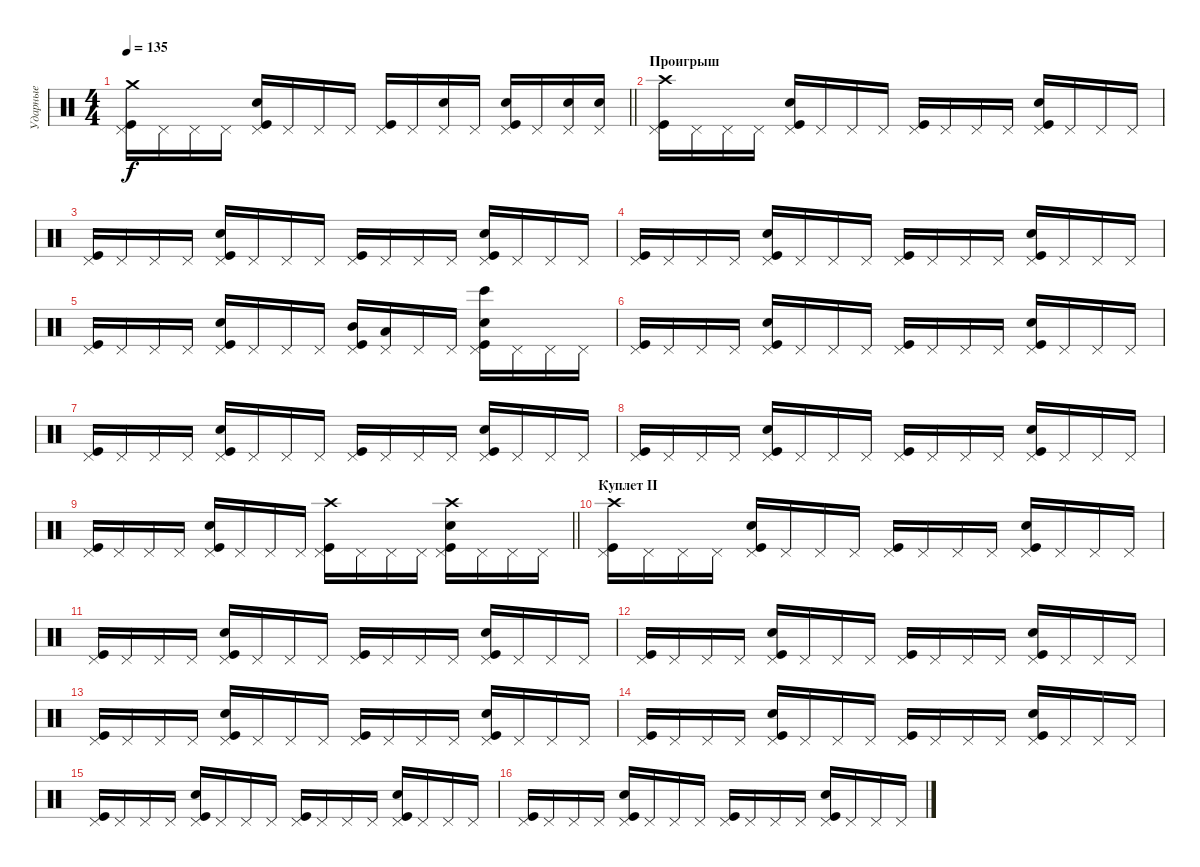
\track ("Ударные" "Ударные") {instrument percussion}
\staff {score}
\articulation defaults
\ts (4 4)
\tempo 135
\clef neutral
\barLineRight lightlight
\ks c
("Kick (hit)" "Pedal Hi-Hat (hit)" "Crash medium (hit)").16{dy f} "Pedal Hi-Hat (hit)".16 "Pedal Hi-Hat (hit)".16 "Pedal Hi-Hat (hit)".16 ("Kick (hit)" "Pedal Hi-Hat (hit)" "Snare (hit) 2").16 "Pedal Hi-Hat (hit)".16 "Pedal Hi-Hat (hit)".16 "Pedal Hi-Hat (hit)".16 ("Kick (hit)" "Pedal Hi-Hat (hit)").16 "Pedal Hi-Hat (hit)".16 ("Pedal Hi-Hat (hit)" "Snare (hit) 2").16 "Pedal Hi-Hat (hit)".16 ("Kick (hit)" "Pedal Hi-Hat (hit)" "Snare (hit) 2").16 "Pedal Hi-Hat (hit)".16 ("Pedal Hi-Hat (hit)" "Snare (hit) 2").16 ("Pedal Hi-Hat (hit)" "Snare (hit) 2").16 |
\section ("" "Проигрыш")
("Kick (hit)" "Pedal Hi-Hat (hit)" "Crash high (hit)").16 "Pedal Hi-Hat (hit)".16 "Pedal Hi-Hat (hit)".16 "Pedal Hi-Hat (hit)".16 ("Kick (hit)" "Pedal Hi-Hat (hit)" "Snare (hit) 2").16 "Pedal Hi-Hat (hit)".16 "Pedal Hi-Hat (hit)".16 "Pedal Hi-Hat (hit)".16 ("Kick (hit)" "Pedal Hi-Hat (hit)").16 "Pedal Hi-Hat (hit)".16 "Pedal Hi-Hat (hit)".16 "Pedal Hi-Hat (hit)".16 ("Kick (hit)" "Pedal Hi-Hat (hit)" "Snare (hit) 2").16 "Pedal Hi-Hat (hit)".16 "Pedal Hi-Hat (hit)".16 "Pedal Hi-Hat (hit)".16 |
("Kick (hit)" "Pedal Hi-Hat (hit)").16 "Pedal Hi-Hat (hit)".16 "Pedal Hi-Hat (hit)".16 "Pedal Hi-Hat (hit)".16 ("Kick (hit)" "Pedal Hi-Hat (hit)" "Snare (hit) 2").16 "Pedal Hi-Hat (hit)".16 "Pedal Hi-Hat (hit)".16 "Pedal Hi-Hat (hit)".16 ("Kick (hit)" "Pedal Hi-Hat (hit)").16 "Pedal Hi-Hat (hit)".16 "Pedal Hi-Hat (hit)".16 "Pedal Hi-Hat (hit)".16 ("Kick (hit)" "Pedal Hi-Hat (hit)" "Snare (hit) 2").16 "Pedal Hi-Hat (hit)".16 "Pedal Hi-Hat (hit)".16 "Pedal Hi-Hat (hit)".16 |
("Kick (hit)" "Pedal Hi-Hat (hit)").16 "Pedal Hi-Hat (hit)".16 "Pedal Hi-Hat (hit)".16 "Pedal Hi-Hat (hit)".16 ("Kick (hit)" "Pedal Hi-Hat (hit)" "Snare (hit) 2").16 "Pedal Hi-Hat (hit)".16 "Pedal Hi-Hat (hit)".16 "Pedal Hi-Hat (hit)".16 ("Kick (hit)" "Pedal Hi-Hat (hit)").16 "Pedal Hi-Hat (hit)".16 "Pedal Hi-Hat (hit)".16 "Pedal Hi-Hat (hit)".16 ("Kick (hit)" "Pedal Hi-Hat (hit)" "Snare (hit) 2").16 "Pedal Hi-Hat (hit)".16 "Pedal Hi-Hat (hit)".16 "Pedal Hi-Hat (hit)".16 |
("Kick (hit)" "Pedal Hi-Hat (hit)").16 "Pedal Hi-Hat (hit)".16 "Pedal Hi-Hat (hit)".16 "Pedal Hi-Hat (hit)".16 ("Kick (hit)" "Pedal Hi-Hat (hit)" "Snare (hit) 2").16 "Pedal Hi-Hat (hit)".16 "Pedal Hi-Hat (hit)".16 "Pedal Hi-Hat (hit)".16 ("Kick (hit)" "Pedal Hi-Hat (hit)" "Mid Tom (hit)").16 ("Pedal Hi-Hat (hit)" "Low Tom (hit)").16 "Pedal Hi-Hat (hit)".16 "Pedal Hi-Hat (hit)".16 ("Kick (hit)" "Pedal Hi-Hat (hit)" "Snare (hit) 2" "Bongo High (hit)").16 "Pedal Hi-Hat (hit)".16 "Pedal Hi-Hat (hit)".16 "Pedal Hi-Hat (hit)".16 |
("Kick (hit)" "Pedal Hi-Hat (hit)").16 "Pedal Hi-Hat (hit)".16 "Pedal Hi-Hat (hit)".16 "Pedal Hi-Hat (hit)".16 ("Kick (hit)" "Pedal Hi-Hat (hit)" "Snare (hit) 2").16 "Pedal Hi-Hat (hit)".16 "Pedal Hi-Hat (hit)".16 "Pedal Hi-Hat (hit)".16 ("Kick (hit)" "Pedal Hi-Hat (hit)").16 "Pedal Hi-Hat (hit)".16 "Pedal Hi-Hat (hit)".16 "Pedal Hi-Hat (hit)".16 ("Kick (hit)" "Pedal Hi-Hat (hit)" "Snare (hit) 2").16 "Pedal Hi-Hat (hit)".16 "Pedal Hi-Hat (hit)".16 "Pedal Hi-Hat (hit)".16 |
("Kick (hit)" "Pedal Hi-Hat (hit)").16 "Pedal Hi-Hat (hit)".16 "Pedal Hi-Hat (hit)".16 "Pedal Hi-Hat (hit)".16 ("Kick (hit)" "Pedal Hi-Hat (hit)" "Snare (hit) 2").16 "Pedal Hi-Hat (hit)".16 "Pedal Hi-Hat (hit)".16 "Pedal Hi-Hat (hit)".16 ("Kick (hit)" "Pedal Hi-Hat (hit)").16 "Pedal Hi-Hat (hit)".16 "Pedal Hi-Hat (hit)".16 "Pedal Hi-Hat (hit)".16 ("Kick (hit)" "Pedal Hi-Hat (hit)" "Snare (hit) 2").16 "Pedal Hi-Hat (hit)".16 "Pedal Hi-Hat (hit)".16 "Pedal Hi-Hat (hit)".16 |
("Kick (hit)" "Pedal Hi-Hat (hit)").16 "Pedal Hi-Hat (hit)".16 "Pedal Hi-Hat (hit)".16 "Pedal Hi-Hat (hit)".16 ("Kick (hit)" "Pedal Hi-Hat (hit)" "Snare (hit) 2").16 "Pedal Hi-Hat (hit)".16 "Pedal Hi-Hat (hit)".16 "Pedal Hi-Hat (hit)".16 ("Kick (hit)" "Pedal Hi-Hat (hit)").16 "Pedal Hi-Hat (hit)".16 "Pedal Hi-Hat (hit)".16 "Pedal Hi-Hat (hit)".16 ("Kick (hit)" "Pedal Hi-Hat (hit)" "Snare (hit) 2").16 "Pedal Hi-Hat (hit)".16 "Pedal Hi-Hat (hit)".16 "Pedal Hi-Hat (hit)".16 |
\barLineRight lightlight
("Kick (hit)" "Pedal Hi-Hat (hit)").16 "Pedal Hi-Hat (hit)".16 "Pedal Hi-Hat (hit)".16 "Pedal Hi-Hat (hit)".16 ("Kick (hit)" "Pedal Hi-Hat (hit)" "Snare (hit) 2").16 "Pedal Hi-Hat (hit)".16 "Pedal Hi-Hat (hit)".16 "Pedal Hi-Hat (hit)".16 ("Kick (hit)" "Pedal Hi-Hat (hit)" "Crash high (hit)").16 "Pedal Hi-Hat (hit)".16 "Pedal Hi-Hat (hit)".16 "Pedal Hi-Hat (hit)".16 ("Kick (hit)" "Pedal Hi-Hat (hit)" "Snare (hit) 2" "Crash high (hit)").16 "Pedal Hi-Hat (hit)".16 "Pedal Hi-Hat (hit)".16 "Pedal Hi-Hat (hit)".16 |
\section ("" "Куплет II")
("Kick (hit)" "Pedal Hi-Hat (hit)" "Crash high (hit)").16 "Pedal Hi-Hat (hit)".16 "Pedal Hi-Hat (hit)".16 "Pedal Hi-Hat (hit)".16 ("Kick (hit)" "Pedal Hi-Hat (hit)" "Snare (hit) 2").16 "Pedal Hi-Hat (hit)".16 "Pedal Hi-Hat (hit)".16 "Pedal Hi-Hat (hit)".16 ("Kick (hit)" "Pedal Hi-Hat (hit)").16 "Pedal Hi-Hat (hit)".16 "Pedal Hi-Hat (hit)".16 "Pedal Hi-Hat (hit)".16 ("Kick (hit)" "Pedal Hi-Hat (hit)" "Snare (hit) 2").16 "Pedal Hi-Hat (hit)".16 "Pedal Hi-Hat (hit)".16 "Pedal Hi-Hat (hit)".16 |
("Kick (hit)" "Pedal Hi-Hat (hit)").16 "Pedal Hi-Hat (hit)".16 "Pedal Hi-Hat (hit)".16 "Pedal Hi-Hat (hit)".16 ("Kick (hit)" "Pedal Hi-Hat (hit)" "Snare (hit) 2").16 "Pedal Hi-Hat (hit)".16 "Pedal Hi-Hat (hit)".16 "Pedal Hi-Hat (hit)".16 ("Kick (hit)" "Pedal Hi-Hat (hit)").16 "Pedal Hi-Hat (hit)".16 "Pedal Hi-Hat (hit)".16 "Pedal Hi-Hat (hit)".16 ("Kick (hit)" "Pedal Hi-Hat (hit)" "Snare (hit) 2").16 "Pedal Hi-Hat (hit)".16 "Pedal Hi-Hat (hit)".16 "Pedal Hi-Hat (hit)".16 |
("Kick (hit)" "Pedal Hi-Hat (hit)").16 "Pedal Hi-Hat (hit)".16 "Pedal Hi-Hat (hit)".16 "Pedal Hi-Hat (hit)".16 ("Kick (hit)" "Pedal Hi-Hat (hit)" "Snare (hit) 2").16 "Pedal Hi-Hat (hit)".16 "Pedal Hi-Hat (hit)".16 "Pedal Hi-Hat (hit)".16 ("Kick (hit)" "Pedal Hi-Hat (hit)").16 "Pedal Hi-Hat (hit)".16 "Pedal Hi-Hat (hit)".16 "Pedal Hi-Hat (hit)".16 ("Kick (hit)" "Pedal Hi-Hat (hit)" "Snare (hit) 2").16 "Pedal Hi-Hat (hit)".16 "Pedal Hi-Hat (hit)".16 "Pedal Hi-Hat (hit)".16 |
("Kick (hit)" "Pedal Hi-Hat (hit)").16 "Pedal Hi-Hat (hit)".16 "Pedal Hi-Hat (hit)".16 "Pedal Hi-Hat (hit)".16 ("Kick (hit)" "Pedal Hi-Hat (hit)" "Snare (hit) 2").16 "Pedal Hi-Hat (hit)".16 "Pedal Hi-Hat (hit)".16 "Pedal Hi-Hat (hit)".16 ("Kick (hit)" "Pedal Hi-Hat (hit)").16 "Pedal Hi-Hat (hit)".16 "Pedal Hi-Hat (hit)".16 "Pedal Hi-Hat (hit)".16 ("Kick (hit)" "Pedal Hi-Hat (hit)" "Snare (hit) 2").16 "Pedal Hi-Hat (hit)".16 "Pedal Hi-Hat (hit)".16 "Pedal Hi-Hat (hit)".16 |
("Kick (hit)" "Pedal Hi-Hat (hit)").16 "Pedal Hi-Hat (hit)".16 "Pedal Hi-Hat (hit)".16 "Pedal Hi-Hat (hit)".16 ("Kick (hit)" "Pedal Hi-Hat (hit)" "Snare (hit) 2").16 "Pedal Hi-Hat (hit)".16 "Pedal Hi-Hat (hit)".16 "Pedal Hi-Hat (hit)".16 ("Kick (hit)" "Pedal Hi-Hat (hit)").16 "Pedal Hi-Hat (hit)".16 "Pedal Hi-Hat (hit)".16 "Pedal Hi-Hat (hit)".16 ("Kick (hit)" "Pedal Hi-Hat (hit)" "Snare (hit) 2").16 "Pedal Hi-Hat (hit)".16 "Pedal Hi-Hat (hit)".16 "Pedal Hi-Hat (hit)".16 |
("Kick (hit)" "Pedal Hi-Hat (hit)").16 "Pedal Hi-Hat (hit)".16 "Pedal Hi-Hat (hit)".16 "Pedal Hi-Hat (hit)".16 ("Kick (hit)" "Pedal Hi-Hat (hit)" "Snare (hit) 2").16 "Pedal Hi-Hat (hit)".16 "Pedal Hi-Hat (hit)".16 "Pedal Hi-Hat (hit)".16 ("Kick (hit)" "Pedal Hi-Hat (hit)").16 "Pedal Hi-Hat (hit)".16 "Pedal Hi-Hat (hit)".16 "Pedal Hi-Hat (hit)".16 ("Kick (hit)" "Pedal Hi-Hat (hit)" "Snare (hit) 2").16 "Pedal Hi-Hat (hit)".16 "Pedal Hi-Hat (hit)".16 "Pedal Hi-Hat (hit)".16 |
("Kick (hit)" "Pedal Hi-Hat (hit)").16 "Pedal Hi-Hat (hit)".16 "Pedal Hi-Hat (hit)".16 "Pedal Hi-Hat (hit)".16 ("Kick (hit)" "Pedal Hi-Hat (hit)" "Snare (hit) 2").16 "Pedal Hi-Hat (hit)".16 "Pedal Hi-Hat (hit)".16 "Pedal Hi-Hat (hit)".16 ("Kick (hit)" "Pedal Hi-Hat (hit)").16 "Pedal Hi-Hat (hit)".16 "Pedal Hi-Hat (hit)".16 "Pedal Hi-Hat (hit)".16 ("Kick (hit)" "Pedal Hi-Hat (hit)" "Snare (hit) 2").16 "Pedal Hi-Hat (hit)".16 "Pedal Hi-Hat (hit)".16 "Pedal Hi-Hat (hit)".16
